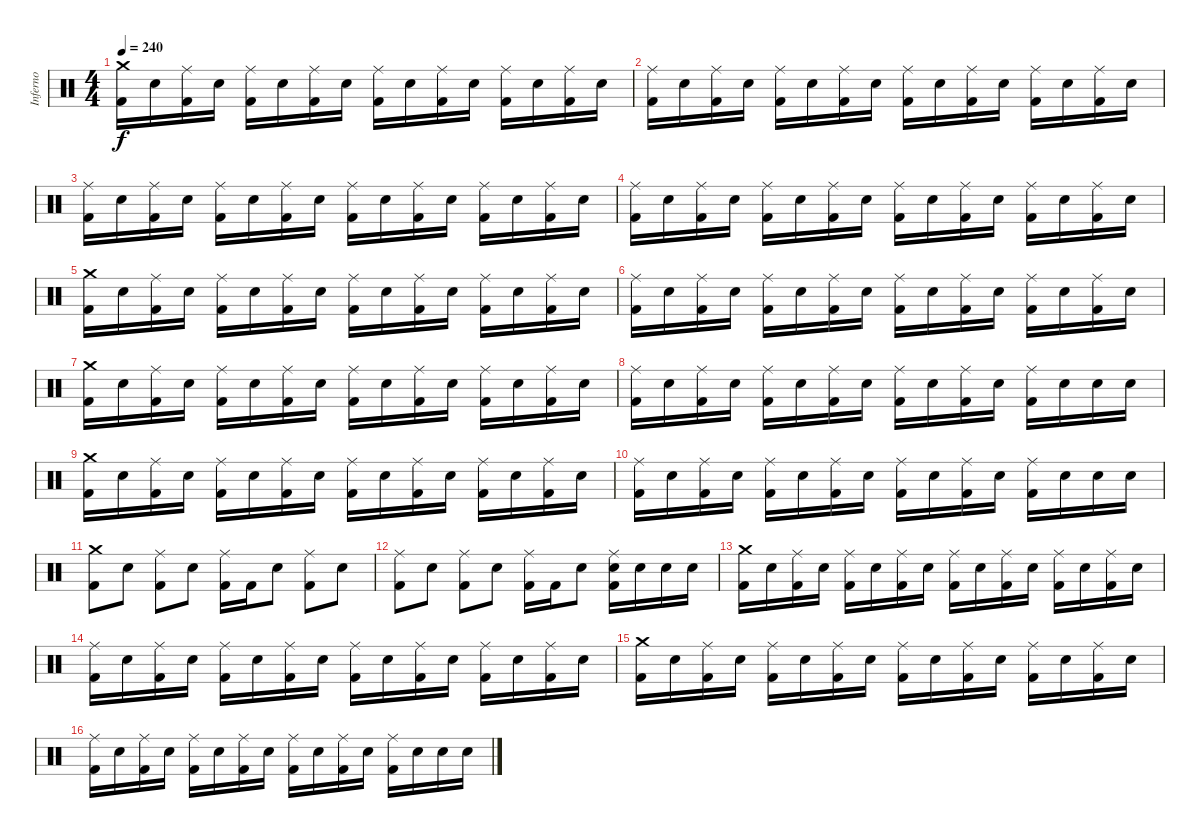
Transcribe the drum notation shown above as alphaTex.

\track ("Inferno" "Inferno") {instrument percussion}
\staff {score}
\articulation defaults
\ts (4 4)
\tempo 240
\clef neutral
\ks c
("Crash medium (hit)" "Kick (hit) 2").16{dy f} "Snare (hit) 2".16 ("Ride (middle)" "Kick (hit) 2").16 "Snare (hit) 2".16 ("Ride (middle)" "Kick (hit) 2").16 "Snare (hit) 2".16 ("Ride (middle)" "Kick (hit) 2").16 "Snare (hit) 2".16 ("Ride (middle)" "Kick (hit) 2").16 "Snare (hit) 2".16 ("Ride (middle)" "Kick (hit) 2").16 "Snare (hit) 2".16 ("Ride (middle)" "Kick (hit) 2").16 "Snare (hit) 2".16 ("Ride (middle)" "Kick (hit) 2").16 "Snare (hit) 2".16 |
("Ride (middle)" "Kick (hit) 2").16 "Snare (hit) 2".16 ("Ride (middle)" "Kick (hit) 2").16 "Snare (hit) 2".16 ("Ride (middle)" "Kick (hit) 2").16 "Snare (hit) 2".16 ("Ride (middle)" "Kick (hit) 2").16 "Snare (hit) 2".16 ("Ride (middle)" "Kick (hit) 2").16 "Snare (hit) 2".16 ("Ride (middle)" "Kick (hit) 2").16 "Snare (hit) 2".16 ("Ride (middle)" "Kick (hit) 2").16 "Snare (hit) 2".16 ("Ride (middle)" "Kick (hit) 2").16 "Snare (hit) 2".16 |
("Ride (middle)" "Kick (hit) 2").16 "Snare (hit) 2".16 ("Ride (middle)" "Kick (hit) 2").16 "Snare (hit) 2".16 ("Ride (middle)" "Kick (hit) 2").16 "Snare (hit) 2".16 ("Ride (middle)" "Kick (hit) 2").16 "Snare (hit) 2".16 ("Ride (middle)" "Kick (hit) 2").16 "Snare (hit) 2".16 ("Ride (middle)" "Kick (hit) 2").16 "Snare (hit) 2".16 ("Ride (middle)" "Kick (hit) 2").16 "Snare (hit) 2".16 ("Ride (middle)" "Kick (hit) 2").16 "Snare (hit) 2".16 |
("Ride (middle)" "Kick (hit) 2").16 "Snare (hit) 2".16 ("Ride (middle)" "Kick (hit) 2").16 "Snare (hit) 2".16 ("Ride (middle)" "Kick (hit) 2").16 "Snare (hit) 2".16 ("Ride (middle)" "Kick (hit) 2").16 "Snare (hit) 2".16 ("Ride (middle)" "Kick (hit) 2").16 "Snare (hit) 2".16 ("Ride (middle)" "Kick (hit) 2").16 "Snare (hit) 2".16 ("Ride (middle)" "Kick (hit) 2").16 "Snare (hit) 2".16 ("Ride (middle)" "Kick (hit) 2").16 "Snare (hit) 2".16 |
("Crash medium (hit)" "Kick (hit) 2").16 "Snare (hit) 2".16 ("Ride (middle)" "Kick (hit) 2").16 "Snare (hit) 2".16 ("Ride (middle)" "Kick (hit) 2").16 "Snare (hit) 2".16 ("Ride (middle)" "Kick (hit) 2").16 "Snare (hit) 2".16 ("Ride (middle)" "Kick (hit) 2").16 "Snare (hit) 2".16 ("Ride (middle)" "Kick (hit) 2").16 "Snare (hit) 2".16 ("Ride (middle)" "Kick (hit) 2").16 "Snare (hit) 2".16 ("Ride (middle)" "Kick (hit) 2").16 "Snare (hit) 2".16 |
("Ride (middle)" "Kick (hit) 2").16 "Snare (hit) 2".16 ("Ride (middle)" "Kick (hit) 2").16 "Snare (hit) 2".16 ("Ride (middle)" "Kick (hit) 2").16 "Snare (hit) 2".16 ("Ride (middle)" "Kick (hit) 2").16 "Snare (hit) 2".16 ("Ride (middle)" "Kick (hit) 2").16 "Snare (hit) 2".16 ("Ride (middle)" "Kick (hit) 2").16 "Snare (hit) 2".16 ("Ride (middle)" "Kick (hit) 2").16 "Snare (hit) 2".16 ("Ride (middle)" "Kick (hit) 2").16 "Snare (hit) 2".16 |
("Crash medium (hit)" "Kick (hit) 2").16 "Snare (hit) 2".16 ("Ride (middle)" "Kick (hit) 2").16 "Snare (hit) 2".16 ("Ride (middle)" "Kick (hit) 2").16 "Snare (hit) 2".16 ("Ride (middle)" "Kick (hit) 2").16 "Snare (hit) 2".16 ("Ride (middle)" "Kick (hit) 2").16 "Snare (hit) 2".16 ("Ride (middle)" "Kick (hit) 2").16 "Snare (hit) 2".16 ("Ride (middle)" "Kick (hit) 2").16 "Snare (hit) 2".16 ("Ride (middle)" "Kick (hit) 2").16 "Snare (hit) 2".16 |
("Ride (middle)" "Kick (hit) 2").16 "Snare (hit) 2".16 ("Ride (middle)" "Kick (hit) 2").16 "Snare (hit) 2".16 ("Ride (middle)" "Kick (hit) 2").16 "Snare (hit) 2".16 ("Ride (middle)" "Kick (hit) 2").16 "Snare (hit) 2".16 ("Ride (middle)" "Kick (hit) 2").16 "Snare (hit) 2".16 ("Ride (middle)" "Kick (hit) 2").16 "Snare (hit) 2".16 ("Ride (middle)" "Kick (hit) 2").16 "Snare (hit) 2".16 "Snare (hit) 2".16 "Snare (hit) 2".16 |
("Crash medium (hit)" "Kick (hit) 2").16 "Snare (hit) 2".16 ("Ride (middle)" "Kick (hit) 2").16 "Snare (hit) 2".16 ("Ride (middle)" "Kick (hit) 2").16 "Snare (hit) 2".16 ("Ride (middle)" "Kick (hit) 2").16 "Snare (hit) 2".16 ("Ride (middle)" "Kick (hit) 2").16 "Snare (hit) 2".16 ("Ride (middle)" "Kick (hit) 2").16 "Snare (hit) 2".16 ("Ride (middle)" "Kick (hit) 2").16 "Snare (hit) 2".16 ("Ride (middle)" "Kick (hit) 2").16 "Snare (hit) 2".16 |
("Ride (middle)" "Kick (hit) 2").16 "Snare (hit) 2".16 ("Ride (middle)" "Kick (hit) 2").16 "Snare (hit) 2".16 ("Ride (middle)" "Kick (hit) 2").16 "Snare (hit) 2".16 ("Ride (middle)" "Kick (hit) 2").16 "Snare (hit) 2".16 ("Ride (middle)" "Kick (hit) 2").16 "Snare (hit) 2".16 ("Ride (middle)" "Kick (hit) 2").16 "Snare (hit) 2".16 ("Ride (middle)" "Kick (hit) 2").16 "Snare (hit) 2".16 "Snare (hit) 2".16 "Snare (hit) 2".16 |
("Crash medium (hit)" "Kick (hit) 2").8 "Snare (hit) 2".8 ("Ride (middle)" "Kick (hit) 2").8 "Snare (hit) 2".8 ("Ride (middle)" "Kick (hit) 2").16 "Kick (hit) 2".16 "Snare (hit) 2".8 ("Ride (middle)" "Kick (hit) 2").8 "Snare (hit) 2".8 |
("Ride (middle)" "Kick (hit) 2").8 "Snare (hit) 2".8 ("Ride (middle)" "Kick (hit) 2").8 "Snare (hit) 2".8 ("Ride (middle)" "Kick (hit) 2").16 "Kick (hit) 2".16 "Snare (hit) 2".8 ("Ride (middle)" "Snare (hit) 2" "Kick (hit) 2").16 "Snare (hit) 2".16 "Snare (hit) 2".16 "Snare (hit) 2".16 |
("Crash medium (hit)" "Kick (hit) 2").16 "Snare (hit) 2".16 ("Ride (middle)" "Kick (hit) 2").16 "Snare (hit) 2".16 ("Ride (middle)" "Kick (hit) 2").16 "Snare (hit) 2".16 ("Ride (middle)" "Kick (hit) 2").16 "Snare (hit) 2".16 ("Ride (middle)" "Kick (hit) 2").16 "Snare (hit) 2".16 ("Ride (middle)" "Kick (hit) 2").16 "Snare (hit) 2".16 ("Ride (middle)" "Kick (hit) 2").16 "Snare (hit) 2".16 ("Ride (middle)" "Kick (hit) 2").16 "Snare (hit) 2".16 |
("Ride (middle)" "Kick (hit) 2").16 "Snare (hit) 2".16 ("Ride (middle)" "Kick (hit) 2").16 "Snare (hit) 2".16 ("Ride (middle)" "Kick (hit) 2").16 "Snare (hit) 2".16 ("Ride (middle)" "Kick (hit) 2").16 "Snare (hit) 2".16 ("Ride (middle)" "Kick (hit) 2").16 "Snare (hit) 2".16 ("Ride (middle)" "Kick (hit) 2").16 "Snare (hit) 2".16 ("Ride (middle)" "Kick (hit) 2").16 "Snare (hit) 2".16 ("Ride (middle)" "Kick (hit) 2").16 "Snare (hit) 2".16 |
("Crash medium (hit)" "Kick (hit) 2").16 "Snare (hit) 2".16 ("Ride (middle)" "Kick (hit) 2").16 "Snare (hit) 2".16 ("Ride (middle)" "Kick (hit) 2").16 "Snare (hit) 2".16 ("Ride (middle)" "Kick (hit) 2").16 "Snare (hit) 2".16 ("Ride (middle)" "Kick (hit) 2").16 "Snare (hit) 2".16 ("Ride (middle)" "Kick (hit) 2").16 "Snare (hit) 2".16 ("Ride (middle)" "Kick (hit) 2").16 "Snare (hit) 2".16 ("Ride (middle)" "Kick (hit) 2").16 "Snare (hit) 2".16 |
("Ride (middle)" "Kick (hit) 2").16 "Snare (hit) 2".16 ("Ride (middle)" "Kick (hit) 2").16 "Snare (hit) 2".16 ("Ride (middle)" "Kick (hit) 2").16 "Snare (hit) 2".16 ("Ride (middle)" "Kick (hit) 2").16 "Snare (hit) 2".16 ("Ride (middle)" "Kick (hit) 2").16 "Snare (hit) 2".16 ("Ride (middle)" "Kick (hit) 2").16 "Snare (hit) 2".16 ("Ride (middle)" "Kick (hit) 2").16 "Snare (hit) 2".16 "Snare (hit) 2".16 "Snare (hit) 2".16
